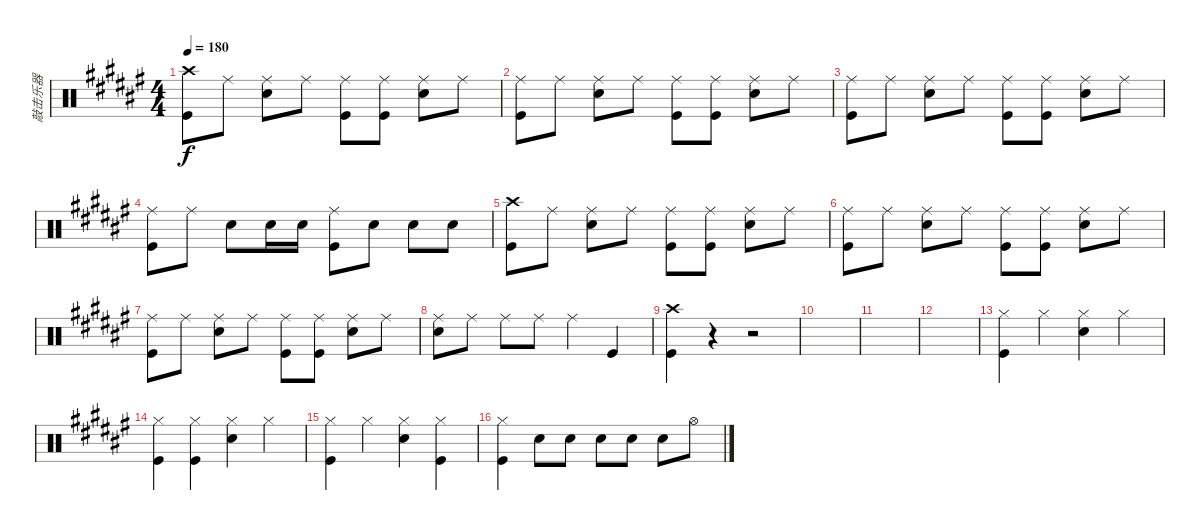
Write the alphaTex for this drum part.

\track ("敲击乐器" "敲击乐器") {instrument percussion}
\staff {score}
\articulation defaults
\ts (4 4)
\tempo 180
\clef neutral
\ks f#
("Crash high (hit)" "Kick (hit)").8{dy f} "Ride (middle)".8 ("Ride (middle)" "Electric Snare (hit)").8 "Ride (middle)".8 ("Ride (middle)" "Kick (hit)").8 ("Ride (middle)" "Kick (hit)").8 ("Ride (middle)" "Electric Snare (hit)").8 "Ride (middle)".8 |
("Ride (middle)" "Kick (hit)").8 "Ride (middle)".8 ("Ride (middle)" "Electric Snare (hit)").8 "Ride (middle)".8 ("Ride (middle)" "Kick (hit)").8 ("Ride (middle)" "Kick (hit)").8 ("Ride (middle)" "Electric Snare (hit)").8 "Ride (middle)".8 |
("Ride (middle)" "Kick (hit)").8 "Ride (middle)".8 ("Ride (middle)" "Electric Snare (hit)").8 "Ride (middle)".8 ("Ride (middle)" "Kick (hit)").8 ("Ride (middle)" "Kick (hit)").8 ("Ride (middle)" "Electric Snare (hit)").8 "Ride (middle)".8 |
("Ride (middle)" "Kick (hit)").8 "Ride (middle)".8 "Electric Snare (hit)".8 "Electric Snare (hit)".16 "Electric Snare (hit)".16 ("Ride (middle)" "Kick (hit)").8 "Electric Snare (hit)".8 "Electric Snare (hit)".8 "Electric Snare (hit)".8 |
("Crash high (hit)" "Kick (hit)").8 "Ride (middle)".8 ("Ride (middle)" "Electric Snare (hit)").8 "Ride (middle)".8 ("Ride (middle)" "Kick (hit)").8 ("Ride (middle)" "Kick (hit)").8 ("Ride (middle)" "Electric Snare (hit)").8 "Ride (middle)".8 |
("Ride (middle)" "Kick (hit)").8 "Ride (middle)".8 ("Ride (middle)" "Electric Snare (hit)").8 "Ride (middle)".8 ("Ride (middle)" "Kick (hit)").8 ("Ride (middle)" "Kick (hit)").8 ("Ride (middle)" "Electric Snare (hit)").8 "Ride (middle)".8 |
("Ride (middle)" "Kick (hit)").8 "Ride (middle)".8 ("Ride (middle)" "Electric Snare (hit)").8 "Ride (middle)".8 ("Ride (middle)" "Kick (hit)").8 ("Ride (middle)" "Kick (hit)").8 ("Ride (middle)" "Electric Snare (hit)").8 "Ride (middle)".8 |
("Ride (middle)" "Electric Snare (hit)").8 "Ride (middle)".8 "Ride (middle)".8 "Ride (middle)".8 "Ride (middle)".4 "Kick (hit)".4 |
("Crash high (hit)" "Kick (hit)").4 r.4 r.2 |
|
|
|
("Hi-Hat (closed)" "Kick (hit)").4 "Hi-Hat (closed)".4 ("Hi-Hat (closed)" "Electric Snare (hit)").4 "Hi-Hat (closed)".4 |
("Hi-Hat (closed)" "Kick (hit)").4 ("Hi-Hat (closed)" "Kick (hit)").4 ("Hi-Hat (closed)" "Electric Snare (hit)").4 "Hi-Hat (closed)".4 |
("Hi-Hat (closed)" "Kick (hit)").4 "Hi-Hat (closed)".4 ("Hi-Hat (closed)" "Electric Snare (hit)").4 ("Hi-Hat (closed)" "Kick (hit)").4 |
("Hi-Hat (closed)" "Kick (hit)").4 "Electric Snare (hit)".8 "Electric Snare (hit)".8 "Electric Snare (hit)".8 "Electric Snare (hit)".8 "Electric Snare (hit)".8 "Hi-Hat (open)".8
